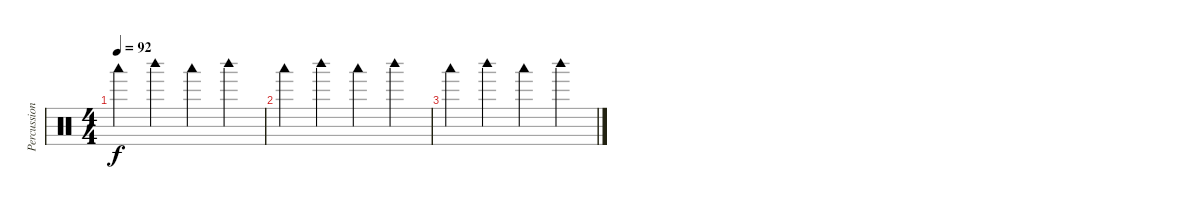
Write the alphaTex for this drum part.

\track ("Percussioni" "Percussion") {instrument percussion}
\staff {score}
\articulation defaults
\ts (4 4)
\tempo 92
\clef neutral
\ks c "Woodblock low (hit)".4{dy f} "Woodblock high (hit)".4 "Woodblock low (hit)".4 "Woodblock high (hit)".4
|
"Woodblock low (hit)".4 "Woodblock high (hit)".4 "Woodblock low (hit)".4 "Woodblock high (hit)".4 |
"Woodblock low (hit)".4 "Woodblock high (hit)".4 "Woodblock low (hit)".4 "Woodblock high (hit)".4
